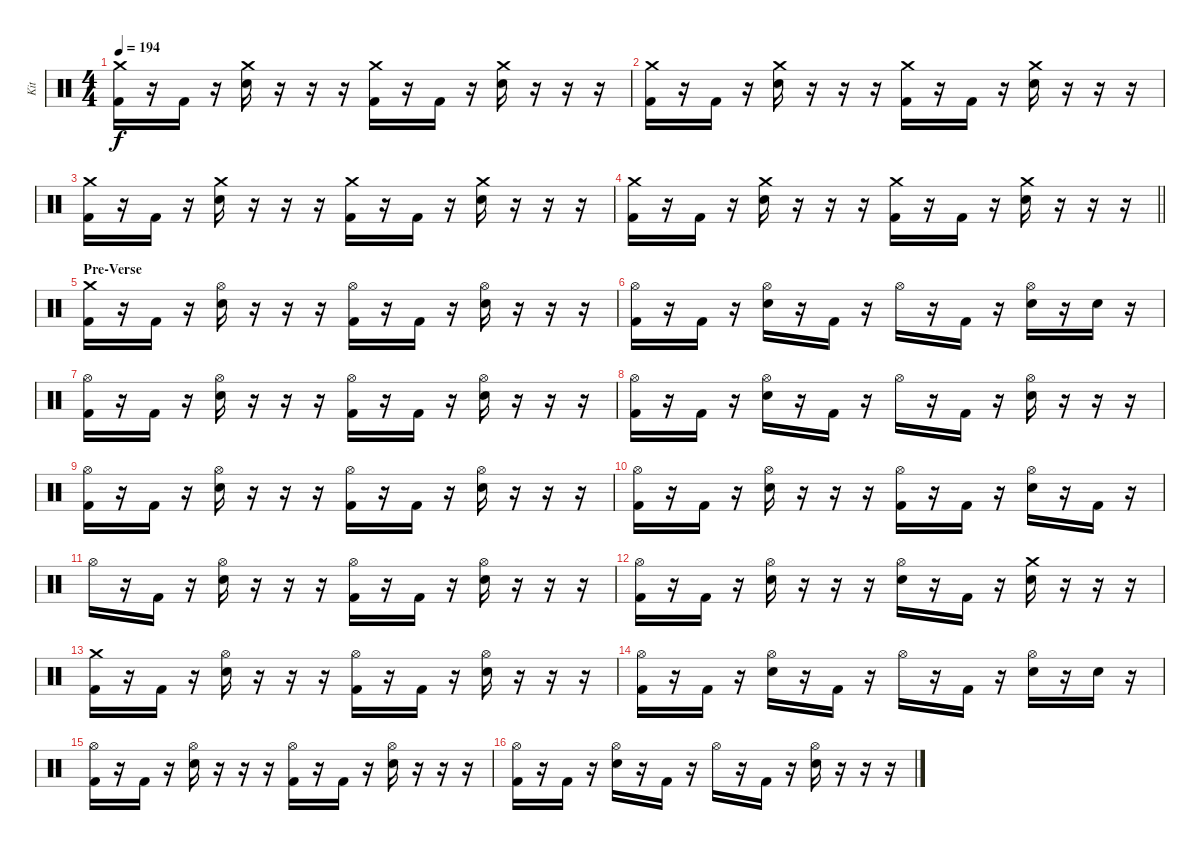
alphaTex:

\track ("Kit" "Kit") {instrument percussion}
\staff {score}
\articulation defaults
\ts (4 4)
\tempo 194
\clef neutral
\ks c
("Crash medium (hit)" "Kick (hit) 2").16{dy f} r.16 "Kick (hit) 2".16 r.16 ("Crash medium (hit)" "Electric Snare (hit)").16 r.16 r.16 r.16 ("Crash medium (hit)" "Kick (hit) 2").16 r.16 "Kick (hit) 2".16 r.16 ("Crash medium (hit)" "Electric Snare (hit)").16 r.16 r.16 r.16 |
("Crash medium (hit)" "Kick (hit) 2").16 r.16 "Kick (hit) 2".16 r.16 ("Crash medium (hit)" "Electric Snare (hit)").16 r.16 r.16 r.16 ("Crash medium (hit)" "Kick (hit) 2").16 r.16 "Kick (hit) 2".16 r.16 ("Crash medium (hit)" "Electric Snare (hit)").16 r.16 r.16 r.16 |
("Crash medium (hit)" "Kick (hit) 2").16 r.16 "Kick (hit) 2".16 r.16 ("Crash medium (hit)" "Electric Snare (hit)").16 r.16 r.16 r.16 ("Crash medium (hit)" "Kick (hit) 2").16 r.16 "Kick (hit) 2".16 r.16 ("Crash medium (hit)" "Electric Snare (hit)").16 r.16 r.16 r.16 |
\barLineRight lightlight
("Crash medium (hit)" "Kick (hit) 2").16 r.16 "Kick (hit) 2".16 r.16 ("Crash medium (hit)" "Electric Snare (hit)").16 r.16 r.16 r.16 ("Crash medium (hit)" "Kick (hit) 2").16 r.16 "Kick (hit) 2".16 r.16 ("Crash medium (hit)" "Electric Snare (hit)").16 r.16 r.16 r.16 |
\section ("" "Pre-Verse")
("Crash medium (hit)" "Kick (hit) 2").16 r.16 "Kick (hit) 2".16 r.16 ("Hi-Hat (open)" "Electric Snare (hit)").16 r.16 r.16 r.16 ("Hi-Hat (open)" "Kick (hit) 2").16 r.16 "Kick (hit) 2".16 r.16 ("Hi-Hat (open)" "Electric Snare (hit)").16 r.16 r.16 r.16 |
("Hi-Hat (open)" "Kick (hit) 2").16 r.16 "Kick (hit) 2".16 r.16 ("Hi-Hat (open)" "Electric Snare (hit)").16 r.16 "Kick (hit) 2".16 r.16 "Hi-Hat (open)".16 r.16 "Kick (hit) 2".16 r.16 ("Hi-Hat (open)" "Electric Snare (hit)").16 r.16 "Electric Snare (hit)".16 r.16 |
("Hi-Hat (open)" "Kick (hit) 2").16 r.16 "Kick (hit) 2".16 r.16 ("Hi-Hat (open)" "Electric Snare (hit)").16 r.16 r.16 r.16 ("Hi-Hat (open)" "Kick (hit) 2").16 r.16 "Kick (hit) 2".16 r.16 ("Hi-Hat (open)" "Electric Snare (hit)").16 r.16 r.16 r.16 |
("Hi-Hat (open)" "Kick (hit) 2").16 r.16 "Kick (hit) 2".16 r.16 ("Hi-Hat (open)" "Electric Snare (hit)").16 r.16 "Kick (hit) 2".16 r.16 "Hi-Hat (open)".16 r.16 "Kick (hit) 2".16 r.16 ("Hi-Hat (open)" "Electric Snare (hit)").16 r.16 r.16 r.16 |
("Hi-Hat (open)" "Kick (hit) 2").16 r.16 "Kick (hit) 2".16 r.16 ("Hi-Hat (open)" "Electric Snare (hit)").16 r.16 r.16 r.16 ("Hi-Hat (open)" "Kick (hit) 2").16 r.16 "Kick (hit) 2".16 r.16 ("Hi-Hat (open)" "Electric Snare (hit)").16 r.16 r.16 r.16 |
("Hi-Hat (open)" "Kick (hit) 2").16 r.16 "Kick (hit) 2".16 r.16 ("Hi-Hat (open)" "Electric Snare (hit)").16 r.16 r.16 r.16 ("Hi-Hat (open)" "Kick (hit) 2").16 r.16 "Kick (hit) 2".16 r.16 ("Hi-Hat (open)" "Electric Snare (hit)").16 r.16 "Kick (hit) 2".16 r.16 |
"Hi-Hat (open)".16 r.16 "Kick (hit) 2".16 r.16 ("Hi-Hat (open)" "Electric Snare (hit)").16 r.16 r.16 r.16 ("Hi-Hat (open)" "Kick (hit) 2").16 r.16 "Kick (hit) 2".16 r.16 ("Hi-Hat (open)" "Electric Snare (hit)").16 r.16 r.16 r.16 |
("Hi-Hat (open)" "Kick (hit) 2").16 r.16 "Kick (hit) 2".16 r.16 ("Hi-Hat (open)" "Electric Snare (hit)").16 r.16 r.16 r.16 ("Hi-Hat (open)" "Electric Snare (hit)").16 r.16 "Kick (hit) 2".16 r.16 ("Crash medium (hit)" "Electric Snare (hit)").16 r.16 r.16 r.16 |
("Crash medium (hit)" "Kick (hit) 2").16 r.16 "Kick (hit) 2".16 r.16 ("Hi-Hat (open)" "Electric Snare (hit)").16 r.16 r.16 r.16 ("Hi-Hat (open)" "Kick (hit) 2").16 r.16 "Kick (hit) 2".16 r.16 ("Hi-Hat (open)" "Electric Snare (hit)").16 r.16 r.16 r.16 |
("Hi-Hat (open)" "Kick (hit) 2").16 r.16 "Kick (hit) 2".16 r.16 ("Hi-Hat (open)" "Electric Snare (hit)").16 r.16 "Kick (hit) 2".16 r.16 "Hi-Hat (open)".16 r.16 "Kick (hit) 2".16 r.16 ("Hi-Hat (open)" "Electric Snare (hit)").16 r.16 "Electric Snare (hit)".16 r.16 |
("Hi-Hat (open)" "Kick (hit) 2").16 r.16 "Kick (hit) 2".16 r.16 ("Hi-Hat (open)" "Electric Snare (hit)").16 r.16 r.16 r.16 ("Hi-Hat (open)" "Kick (hit) 2").16 r.16 "Kick (hit) 2".16 r.16 ("Hi-Hat (open)" "Electric Snare (hit)").16 r.16 r.16 r.16 |
("Hi-Hat (open)" "Kick (hit) 2").16 r.16 "Kick (hit) 2".16 r.16 ("Hi-Hat (open)" "Electric Snare (hit)").16 r.16 "Kick (hit) 2".16 r.16 "Hi-Hat (open)".16 r.16 "Kick (hit) 2".16 r.16 ("Hi-Hat (open)" "Electric Snare (hit)").16 r.16 r.16 r.16
